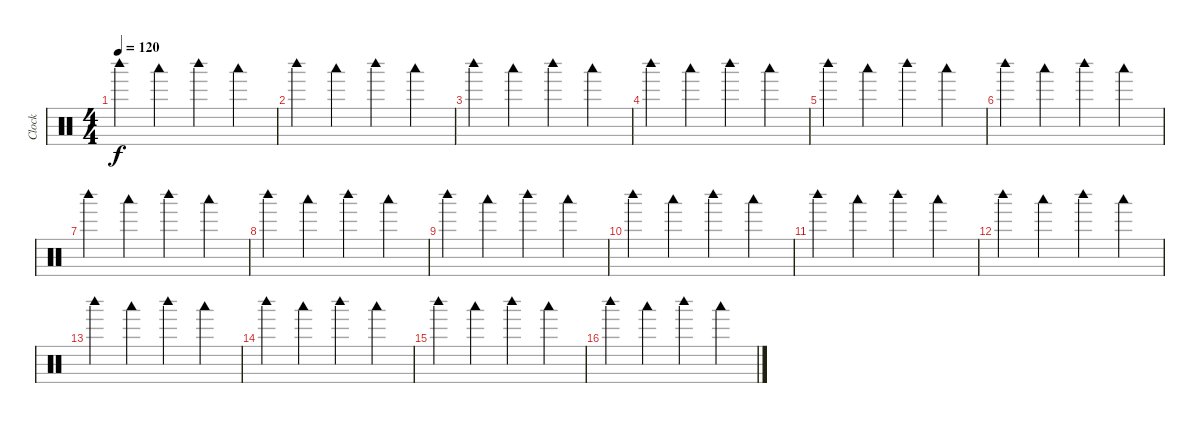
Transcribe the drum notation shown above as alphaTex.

\track ("Clock" "Clock") {instrument percussion}
\staff {score}
\articulation defaults
\ts (4 4)
\tempo 120
\clef neutral
\ks c "Woodblock high (hit)".4{dy f balance 16} "Woodblock low (hit)".4{balance 0} "Woodblock high (hit)".4{balance 16} "Woodblock low (hit)".4{balance 0}
|
"Woodblock high (hit)".4{balance 16} "Woodblock low (hit)".4{balance 0} "Woodblock high (hit)".4{balance 16} "Woodblock low (hit)".4{balance 0} |
"Woodblock high (hit)".4{balance 16} "Woodblock low (hit)".4{balance 0} "Woodblock high (hit)".4{balance 16} "Woodblock low (hit)".4{balance 0} |
"Woodblock high (hit)".4{balance 16} "Woodblock low (hit)".4{balance 0} "Woodblock high (hit)".4{balance 16} "Woodblock low (hit)".4{balance 0} |
"Woodblock high (hit)".4{balance 16} "Woodblock low (hit)".4{balance 0} "Woodblock high (hit)".4{balance 16} "Woodblock low (hit)".4{balance 0} |
"Woodblock high (hit)".4{balance 16} "Woodblock low (hit)".4{balance 0} "Woodblock high (hit)".4{balance 16} "Woodblock low (hit)".4{balance 0} |
"Woodblock high (hit)".4{balance 16} "Woodblock low (hit)".4{balance 0} "Woodblock high (hit)".4{balance 16} "Woodblock low (hit)".4{balance 0} |
"Woodblock high (hit)".4{balance 16} "Woodblock low (hit)".4{balance 0} "Woodblock high (hit)".4{balance 16} "Woodblock low (hit)".4{balance 0} |
"Woodblock high (hit)".4{balance 16} "Woodblock low (hit)".4{balance 0} "Woodblock high (hit)".4{balance 16} "Woodblock low (hit)".4{balance 0} |
"Woodblock high (hit)".4{balance 16} "Woodblock low (hit)".4{balance 0} "Woodblock high (hit)".4{balance 16} "Woodblock low (hit)".4{balance 0} |
"Woodblock high (hit)".4{balance 16} "Woodblock low (hit)".4{balance 0} "Woodblock high (hit)".4{balance 16} "Woodblock low (hit)".4{balance 0} |
"Woodblock high (hit)".4{balance 16} "Woodblock low (hit)".4{balance 0} "Woodblock high (hit)".4{balance 16} "Woodblock low (hit)".4{balance 0} |
"Woodblock high (hit)".4{balance 16} "Woodblock low (hit)".4{balance 0} "Woodblock high (hit)".4{balance 16} "Woodblock low (hit)".4{balance 0} |
"Woodblock high (hit)".4{balance 16} "Woodblock low (hit)".4{balance 0} "Woodblock high (hit)".4{balance 16} "Woodblock low (hit)".4{balance 0} |
"Woodblock high (hit)".4{balance 16} "Woodblock low (hit)".4{balance 0} "Woodblock high (hit)".4{balance 16} "Woodblock low (hit)".4{balance 0} |
"Woodblock high (hit)".4{balance 16} "Woodblock low (hit)".4{balance 0} "Woodblock high (hit)".4{balance 16} "Woodblock low (hit)".4{balance 0}
